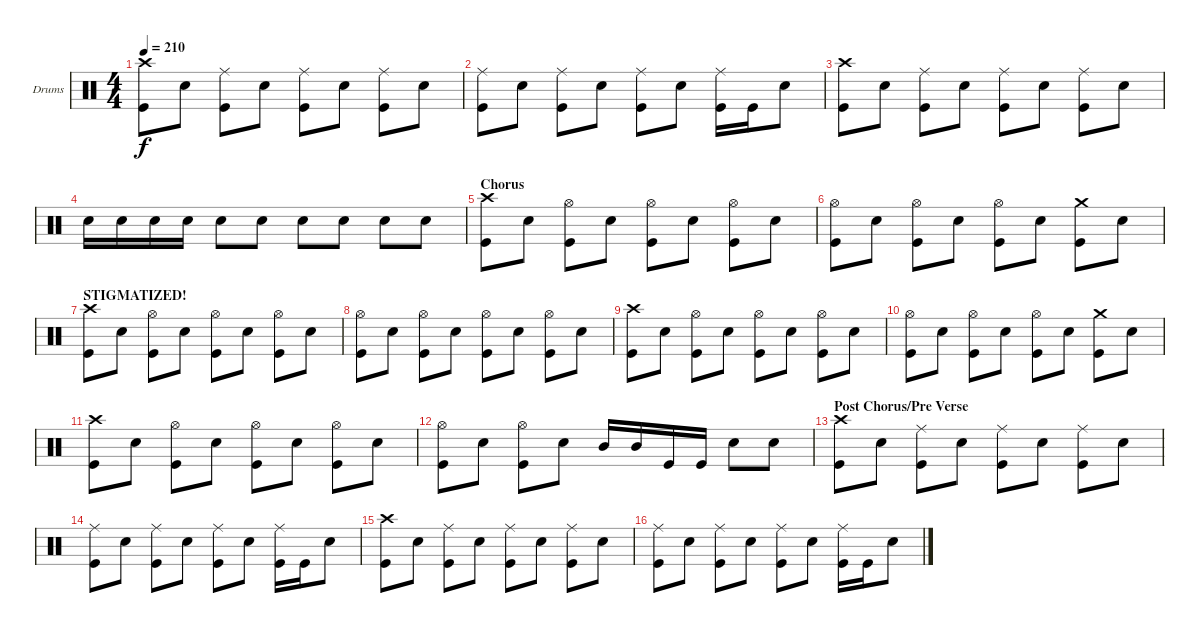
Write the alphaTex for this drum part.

\defaultSystemsLayout 4
\bracketExtendMode groupsimilarinstruments
\firstSystemTrackNameOrientation horizontal
\otherSystemsTrackNameOrientation horizontal
\track ("Markus Freiwald" "Drums") {instrument percussion}
\staff {score}
\articulation defaults
\ts (4 4)
\tempo 210
\clef neutral
\scale
0.5
\ks c
("Crash high (hit)" "Kick (hit)").8{dy f} "Snare (hit) 2".8 ("Ride (middle)" "Kick (hit)").8 "Snare (hit) 2".8 ("Ride (middle)" "Kick (hit)").8 "Snare (hit) 2".8 ("Ride (middle)" "Kick (hit)").8 "Snare (hit) 2".8 |
\scale
0.5 ("Ride (middle)" "Kick (hit)").8 "Snare (hit) 2".8 ("Ride (middle)" "Kick (hit)").8 "Snare (hit) 2".8 ("Ride (middle)" "Kick (hit)").8 "Snare (hit) 2".8 ("Ride (middle)" "Kick (hit)").16 "Kick (hit)".16 "Snare (hit) 2".8 |
\scale
0.5 ("Crash high (hit)" "Kick (hit)").8 "Snare (hit) 2".8 ("Ride (middle)" "Kick (hit)").8 "Snare (hit) 2".8 ("Ride (middle)" "Kick (hit)").8 "Snare (hit) 2".8 ("Ride (middle)" "Kick (hit)").8 "Snare (hit) 2".8 |
\scale
0.5 "Snare (hit) 2".16 "Snare (hit) 2".16 "Snare (hit) 2".16 "Snare (hit) 2".16 "Snare (hit) 2".8 "Snare (hit) 2".8 "Snare (hit) 2".8 "Snare (hit) 2".8 "Snare (hit) 2".8 "Snare (hit) 2".8 |
\section ("" "Chorus")
\scale
0.5 ("Crash high (hit)" "Kick (hit)").8 "Snare (hit) 2".8 ("Hi-Hat (open)" "Kick (hit)").8 "Snare (hit) 2".8 ("Hi-Hat (open)" "Kick (hit)").8 "Snare (hit) 2".8 ("Hi-Hat (open)" "Kick (hit)").8 "Snare (hit) 2".8 |
\scale
0.5 ("Hi-Hat (open)" "Kick (hit)").8 "Snare (hit) 2".8 ("Hi-Hat (open)" "Kick (hit)").8 "Snare (hit) 2".8 ("Hi-Hat (open)" "Kick (hit)").8 "Snare (hit) 2".8 ("Crash medium (hit)" "Kick (hit)").8 "Snare (hit) 2".8 |
\section ("" "STIGMATIZED!")
\scale
0.5 ("Crash high (hit)" "Kick (hit)").8 "Snare (hit) 2".8 ("Hi-Hat (open)" "Kick (hit)").8 "Snare (hit) 2".8 ("Hi-Hat (open)" "Kick (hit)").8 "Snare (hit) 2".8 ("Hi-Hat (open)" "Kick (hit)").8 "Snare (hit) 2".8 |
\scale
0.5 ("Hi-Hat (open)" "Kick (hit)").8 "Snare (hit) 2".8 ("Hi-Hat (open)" "Kick (hit)").8 "Snare (hit) 2".8 ("Hi-Hat (open)" "Kick (hit)").8 "Snare (hit) 2".8 ("Kick (hit)" "Hi-Hat (open)").8 "Snare (hit) 2".8 |
\scale
0.5 ("Crash high (hit)" "Kick (hit)").8 "Snare (hit) 2".8 ("Hi-Hat (open)" "Kick (hit)").8 "Snare (hit) 2".8 ("Hi-Hat (open)" "Kick (hit)").8 "Snare (hit) 2".8 ("Hi-Hat (open)" "Kick (hit)").8 "Snare (hit) 2".8 |
\scale
0.5 ("Hi-Hat (open)" "Kick (hit)").8 "Snare (hit) 2".8 ("Hi-Hat (open)" "Kick (hit)").8 "Snare (hit) 2".8 ("Hi-Hat (open)" "Kick (hit)").8 "Snare (hit) 2".8 ("Crash medium (hit)" "Kick (hit)").8 "Snare (hit) 2".8 |
\scale
0.5 ("Crash high (hit)" "Kick (hit)").8 "Snare (hit) 2".8 ("Hi-Hat (open)" "Kick (hit)").8 "Snare (hit) 2".8 ("Hi-Hat (open)" "Kick (hit)").8 "Snare (hit) 2".8 ("Hi-Hat (open)" "Kick (hit)").8 "Snare (hit) 2".8 |
\scale
0.5 ("Hi-Hat (open)" "Kick (hit)").8 "Snare (hit) 2".8 ("Hi-Hat (open)" "Kick (hit)").8 "Snare (hit) 2".8 "Mid Tom (hit)".16 "Mid Tom (hit)".16 "Kick (hit)".16 "Kick (hit)".16 "Snare (hit) 2".8 "Snare (hit) 2".8 |
\section ("" "Post Chorus/Pre Verse")
\scale
0.5 ("Crash high (hit)" "Kick (hit)").8 "Snare (hit) 2".8 ("Ride (middle)" "Kick (hit)").8 "Snare (hit) 2".8 ("Ride (middle)" "Kick (hit)").8 "Snare (hit) 2".8 ("Ride (middle)" "Kick (hit)").8 "Snare (hit) 2".8 |
\scale
0.5 ("Ride (middle)" "Kick (hit)").8 "Snare (hit) 2".8 ("Ride (middle)" "Kick (hit)").8 "Snare (hit) 2".8 ("Ride (middle)" "Kick (hit)").8 "Snare (hit) 2".8 ("Ride (middle)" "Kick (hit)").16 "Kick (hit)".16 "Snare (hit) 2".8 |
\scale
0.5 ("Crash high (hit)" "Kick (hit)").8 "Snare (hit) 2".8 ("Ride (middle)" "Kick (hit)").8 "Snare (hit) 2".8 ("Ride (middle)" "Kick (hit)").8 "Snare (hit) 2".8 ("Ride (middle)" "Kick (hit)").8 "Snare (hit) 2".8 |
\scale
0.5 ("Ride (middle)" "Kick (hit)").8 "Snare (hit) 2".8 ("Ride (middle)" "Kick (hit)").8 "Snare (hit) 2".8 ("Ride (middle)" "Kick (hit)").8 "Snare (hit) 2".8 ("Ride (middle)" "Kick (hit)").16 "Kick (hit)".16 "Snare (hit) 2".8
